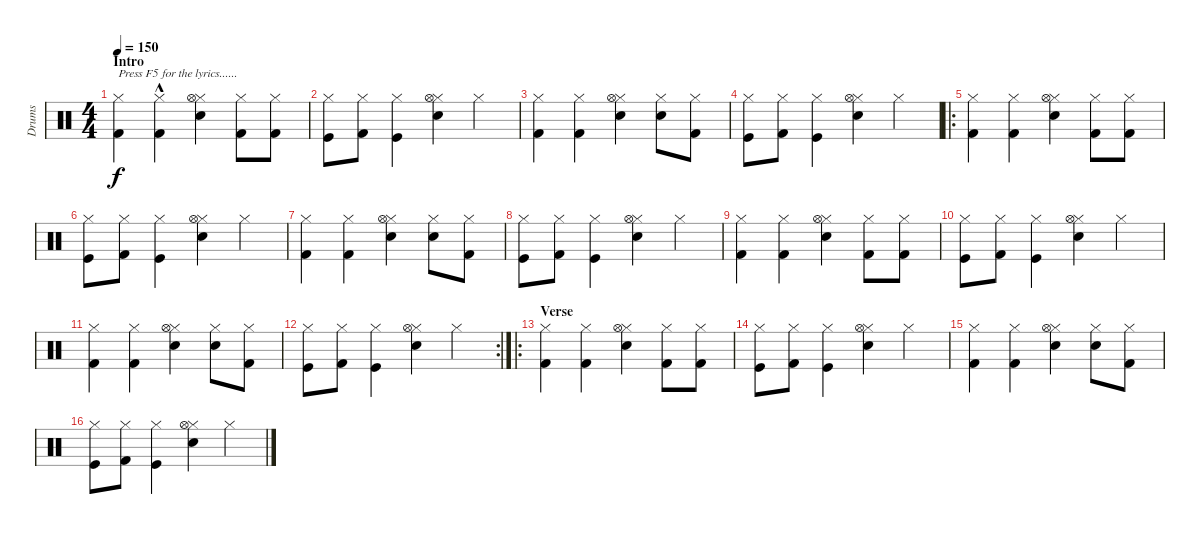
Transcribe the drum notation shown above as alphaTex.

\track ("Drums" "Drums") {instrument percussion}
\staff {score}
\articulation defaults
\ts (4 4)
\section ("" "Intro")
\tempo 150
\clef neutral
\ks c
("Kick (hit) 2" "Hi-Hat (closed)").4{txt "Press F5 for the lyrics......" dy f} ("Kick (hit) 2"{hac} "Hi-Hat (closed)").4 ("Snare (hit) 2" "Hi-Hat (closed)" "Hi-Hat (open)").4 ("Kick (hit) 2" "Hi-Hat (closed)").8 ("Kick (hit) 2" "Hi-Hat (closed)").8 |
("Kick (hit)" "Hi-Hat (closed)").8 ("Kick (hit) 2" "Hi-Hat (closed)").8 ("Kick (hit)" "Hi-Hat (closed)").4 ("Snare (hit) 2" "Hi-Hat (closed)" "Hi-Hat (open)").4 "Hi-Hat (closed)".4 |
("Kick (hit) 2" "Hi-Hat (closed)").4 ("Kick (hit) 2" "Hi-Hat (closed)").4 ("Snare (hit) 2" "Hi-Hat (closed)" "Hi-Hat (open)").4 ("Snare (hit) 2" "Hi-Hat (closed)").8 ("Kick (hit) 2" "Hi-Hat (closed)").8 |
("Kick (hit)" "Hi-Hat (closed)").8 ("Kick (hit) 2" "Hi-Hat (closed)").8 ("Kick (hit)" "Hi-Hat (closed)").4 ("Snare (hit) 2" "Hi-Hat (closed)" "Hi-Hat (open)").4 "Hi-Hat (closed)".4 |
\ro
("Kick (hit) 2" "Hi-Hat (closed)").4 ("Kick (hit) 2" "Hi-Hat (closed)").4 ("Snare (hit) 2" "Hi-Hat (closed)" "Hi-Hat (open)").4 ("Kick (hit) 2" "Hi-Hat (closed)").8 ("Kick (hit) 2" "Hi-Hat (closed)").8 |
("Kick (hit)" "Hi-Hat (closed)").8 ("Kick (hit) 2" "Hi-Hat (closed)").8 ("Kick (hit)" "Hi-Hat (closed)").4 ("Snare (hit) 2" "Hi-Hat (closed)" "Hi-Hat (open)").4 "Hi-Hat (closed)".4 |
("Kick (hit) 2" "Hi-Hat (closed)").4 ("Kick (hit) 2" "Hi-Hat (closed)").4 ("Snare (hit) 2" "Hi-Hat (closed)" "Hi-Hat (open)").4 ("Snare (hit) 2" "Hi-Hat (closed)").8 ("Kick (hit) 2" "Hi-Hat (closed)").8 |
("Kick (hit)" "Hi-Hat (closed)").8 ("Kick (hit) 2" "Hi-Hat (closed)").8 ("Kick (hit)" "Hi-Hat (closed)").4 ("Snare (hit) 2" "Hi-Hat (closed)" "Hi-Hat (open)").4 "Hi-Hat (closed)".4 |
("Kick (hit) 2" "Hi-Hat (closed)").4 ("Kick (hit) 2" "Hi-Hat (closed)").4 ("Snare (hit) 2" "Hi-Hat (closed)" "Hi-Hat (open)").4 ("Kick (hit) 2" "Hi-Hat (closed)").8 ("Kick (hit) 2" "Hi-Hat (closed)").8 |
("Kick (hit)" "Hi-Hat (closed)").8 ("Kick (hit) 2" "Hi-Hat (closed)").8 ("Kick (hit)" "Hi-Hat (closed)").4 ("Snare (hit) 2" "Hi-Hat (closed)" "Hi-Hat (open)").4 "Hi-Hat (closed)".4 |
("Kick (hit) 2" "Hi-Hat (closed)").4 ("Kick (hit) 2" "Hi-Hat (closed)").4 ("Snare (hit) 2" "Hi-Hat (closed)" "Hi-Hat (open)").4 ("Snare (hit) 2" "Hi-Hat (closed)").8 ("Kick (hit) 2" "Hi-Hat (closed)").8 |
\rc 2
("Kick (hit)" "Hi-Hat (closed)").8 ("Kick (hit) 2" "Hi-Hat (closed)").8 ("Kick (hit)" "Hi-Hat (closed)").4 ("Snare (hit) 2" "Hi-Hat (closed)" "Hi-Hat (open)").4 "Hi-Hat (closed)".4 |
\ro
\section ("" "Verse")
("Kick (hit) 2" "Hi-Hat (closed)").4 ("Kick (hit) 2" "Hi-Hat (closed)").4 ("Snare (hit) 2" "Hi-Hat (closed)" "Hi-Hat (open)").4 ("Kick (hit) 2" "Hi-Hat (closed)").8 ("Kick (hit) 2" "Hi-Hat (closed)").8 |
("Kick (hit)" "Hi-Hat (closed)").8 ("Kick (hit) 2" "Hi-Hat (closed)").8 ("Kick (hit)" "Hi-Hat (closed)").4 ("Snare (hit) 2" "Hi-Hat (closed)" "Hi-Hat (open)").4 "Hi-Hat (closed)".4 |
("Kick (hit) 2" "Hi-Hat (closed)").4 ("Kick (hit) 2" "Hi-Hat (closed)").4 ("Snare (hit) 2" "Hi-Hat (closed)" "Hi-Hat (open)").4 ("Snare (hit) 2" "Hi-Hat (closed)").8 ("Kick (hit) 2" "Hi-Hat (closed)").8 |
("Kick (hit)" "Hi-Hat (closed)").8 ("Kick (hit) 2" "Hi-Hat (closed)").8 ("Kick (hit)" "Hi-Hat (closed)").4 ("Snare (hit) 2" "Hi-Hat (closed)" "Hi-Hat (open)").4 "Hi-Hat (closed)".4
